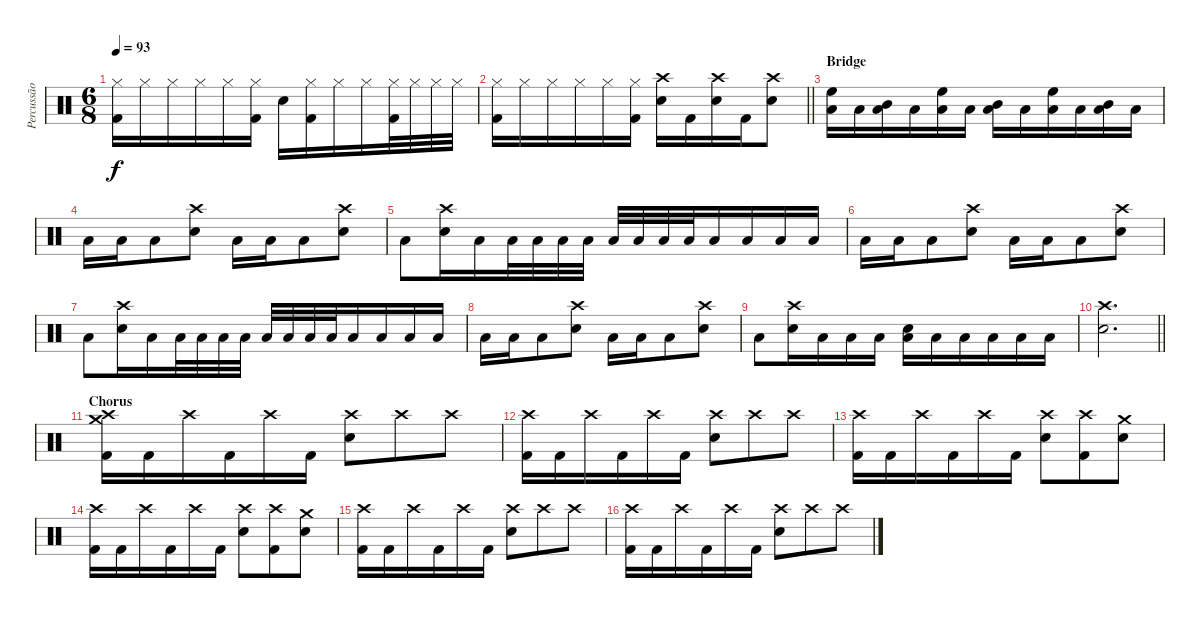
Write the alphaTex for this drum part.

\track ("Percussão" "Percussão") {instrument percussion}
\staff {score}
\articulation defaults
\ts (6 8)
\tempo 93
\clef neutral
\ks c
("Hi-Hat (closed)" "Kick (hit) 2").16{dy f} "Hi-Hat (closed)".16 "Hi-Hat (closed)".16 "Hi-Hat (closed)".16 "Hi-Hat (closed)".16 ("Hi-Hat (closed)" "Kick (hit) 2").16 "Snare (hit) 2".16 ("Hi-Hat (closed)" "Kick (hit) 2").16 "Hi-Hat (closed)".16 "Hi-Hat (closed)".16 ("Hi-Hat (closed)" "Kick (hit) 2").32 "Hi-Hat (closed)".32 "Hi-Hat (closed)".32 "Hi-Hat (closed)".32 |
\barLineRight lightlight
("Hi-Hat (closed)" "Kick (hit) 2").16 "Hi-Hat (closed)".16 "Hi-Hat (closed)".16 "Hi-Hat (closed)".16 "Hi-Hat (closed)".16 ("Hi-Hat (closed)" "Kick (hit) 2").16 ("Snare (hit) 2" "Crash high (hit)").16 "Kick (hit) 2".16 ("Crash high (hit)" "Snare (hit) 2").16 "Kick (hit) 2".16 ("Crash high (hit)" "Snare (hit) 2").8 |
\section ("" "Bridge")
("High Floor Tom (hit)" "Low Floor Tom (hit)").16 "Low Floor Tom (hit)".16 ("Mid Tom (hit)" "Low Floor Tom (hit)").16 "Low Floor Tom (hit)".16 ("High Floor Tom (hit)" "Low Floor Tom (hit)").16 "Low Floor Tom (hit)".16 ("Mid Tom (hit)" "Low Floor Tom (hit)").16 "Low Floor Tom (hit)".16 ("High Floor Tom (hit)" "Low Floor Tom (hit)").16 "Low Floor Tom (hit)".16 ("Mid Tom (hit)" "Low Floor Tom (hit)").16 "Low Floor Tom (hit)".16 |
"Low Floor Tom (hit)".16 "Low Floor Tom (hit)".16 "Low Floor Tom (hit)".8 ("Crash high (hit)" "Snare (hit) 2").8 "Low Floor Tom (hit)".16 "Low Floor Tom (hit)".16 "Low Floor Tom (hit)".8 ("Crash high (hit)" "Snare (hit) 2").8 |
"Low Floor Tom (hit)".8 ("Crash high (hit)" "Snare (hit) 2").16 "Low Floor Tom (hit)".16 "Low Floor Tom (hit)".32 "Low Floor Tom (hit)".32 "Low Floor Tom (hit)".32 "Low Floor Tom (hit)".32 "Low Floor Tom (hit)".32 "Low Floor Tom (hit)".32 "Low Floor Tom (hit)".32 "Low Floor Tom (hit)".32 "Low Floor Tom (hit)".16 "Low Floor Tom (hit)".16 "Low Floor Tom (hit)".16 "Low Floor Tom (hit)".16 |
"Low Floor Tom (hit)".16 "Low Floor Tom (hit)".16 "Low Floor Tom (hit)".8 ("Crash high (hit)" "Snare (hit) 2").8 "Low Floor Tom (hit)".16 "Low Floor Tom (hit)".16 "Low Floor Tom (hit)".8 ("Crash high (hit)" "Snare (hit) 2").8 |
"Low Floor Tom (hit)".8 ("Crash high (hit)" "Snare (hit) 2").16 "Low Floor Tom (hit)".16 "Low Floor Tom (hit)".32 "Low Floor Tom (hit)".32 "Low Floor Tom (hit)".32 "Low Floor Tom (hit)".32 "Low Floor Tom (hit)".32 "Low Floor Tom (hit)".32 "Low Floor Tom (hit)".32 "Low Floor Tom (hit)".32 "Low Floor Tom (hit)".16 "Low Floor Tom (hit)".16 "Low Floor Tom (hit)".16 "Low Floor Tom (hit)".16 |
"Low Floor Tom (hit)".16 "Low Floor Tom (hit)".16 "Low Floor Tom (hit)".8 ("Crash high (hit)" "Snare (hit) 2").8 "Low Floor Tom (hit)".16 "Low Floor Tom (hit)".16 "Low Floor Tom (hit)".8 ("Crash high (hit)" "Snare (hit) 2").8 |
"Low Floor Tom (hit)".8 ("Crash high (hit)" "Snare (hit) 2").16 "Low Floor Tom (hit)".16 "Low Floor Tom (hit)".16 "Low Floor Tom (hit)".16 ("Snare (hit) 2" "Low Floor Tom (hit)").16 "Low Floor Tom (hit)".16 "Low Floor Tom (hit)".16 "Low Floor Tom (hit)".16 "Low Floor Tom (hit)".16 "Low Floor Tom (hit)".16 |
\barLineRight lightlight
("Crash high (hit)" "Snare (hit) 2").2{d} |
\section ("" "Chorus")
("Crash high (hit)" "Crash medium (hit)" "Kick (hit) 2").16 "Kick (hit) 2".16 "Crash high (hit)".16 "Kick (hit) 2".16 "Crash high (hit)".16 "Kick (hit) 2".16 ("Crash high (hit)" "Snare (hit) 2").8 "Crash high (hit)".8 "Crash high (hit)".8 |
("Crash high (hit)" "Kick (hit) 2").16 "Kick (hit) 2".16 "Crash high (hit)".16 "Kick (hit) 2".16 "Crash high (hit)".16 "Kick (hit) 2".16 ("Crash high (hit)" "Snare (hit) 2").8 "Crash high (hit)".8 "Crash high (hit)".8 |
("Crash high (hit)" "Kick (hit) 2").16 "Kick (hit) 2".16 "Crash high (hit)".16 "Kick (hit) 2".16 "Crash high (hit)".16 "Kick (hit) 2".16 ("Crash high (hit)" "Snare (hit) 2").8 ("Crash high (hit)" "Kick (hit) 2").8 ("Crash medium (hit)" "Snare (hit) 2").8 |
("Crash high (hit)" "Kick (hit) 2").16 "Kick (hit) 2".16 "Crash high (hit)".16 "Kick (hit) 2".16 "Crash high (hit)".16 "Kick (hit) 2".16 ("Crash high (hit)" "Snare (hit) 2").8 ("Crash high (hit)" "Kick (hit) 2").8 ("Crash medium (hit)" "Snare (hit) 2").8 |
("Crash high (hit)" "Kick (hit) 2").16 "Kick (hit) 2".16 "Crash high (hit)".16 "Kick (hit) 2".16 "Crash high (hit)".16 "Kick (hit) 2".16 ("Crash high (hit)" "Snare (hit) 2").8 "Crash high (hit)".8 "Crash high (hit)".8 |
("Crash high (hit)" "Kick (hit) 2").16 "Kick (hit) 2".16 "Crash high (hit)".16 "Kick (hit) 2".16 "Crash high (hit)".16 "Kick (hit) 2".16 ("Crash high (hit)" "Snare (hit) 2").8 "Crash high (hit)".8 "Crash high (hit)".8
